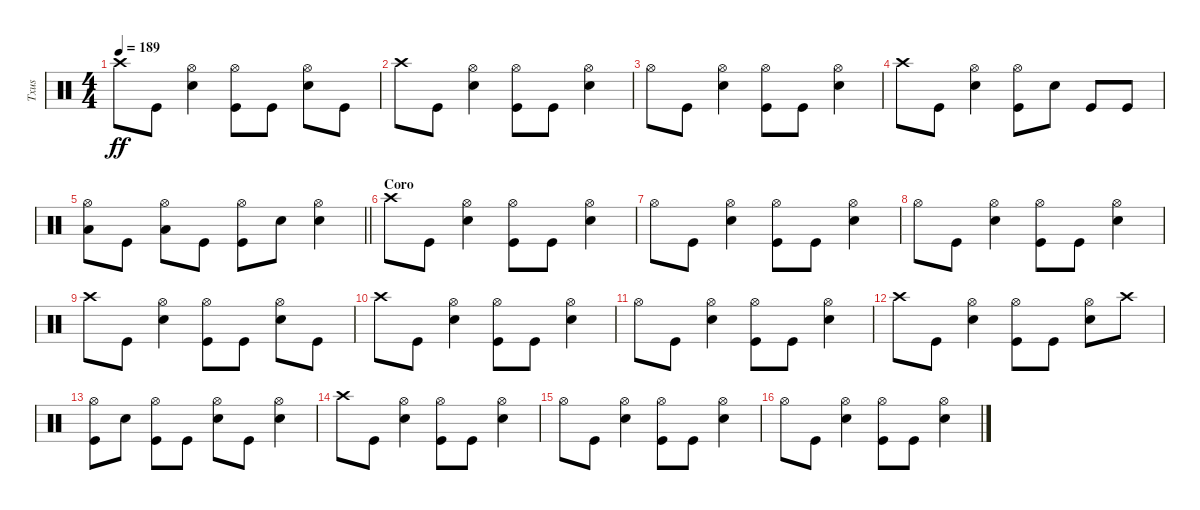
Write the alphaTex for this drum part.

\track ("Txus" "Txus") {instrument percussion}
\staff {score}
\articulation defaults
\ts (4 4)
\tempo 189
\clef neutral
\ks c "Crash high (hit)".8{dy ff} "Kick (hit)".8
("Snare (hit) 2" "Hi-Hat (open)").4 ("Kick (hit)" "Hi-Hat (open)").8 "Kick (hit)".8 ("Snare (hit) 2" "Hi-Hat (open)").8 "Kick (hit)".8 |
"Crash high (hit)".8 "Kick (hit)".8 ("Snare (hit) 2" "Hi-Hat (open)").4 ("Kick (hit)" "Hi-Hat (open)").8 "Kick (hit)".8 ("Snare (hit) 2" "Hi-Hat (open)").4 |
"Hi-Hat (open)".8 "Kick (hit)".8 ("Snare (hit) 2" "Hi-Hat (open)").4 ("Kick (hit)" "Hi-Hat (open)").8 "Kick (hit)".8 ("Snare (hit) 2" "Hi-Hat (open)").4 |
"Crash high (hit)".8 "Kick (hit)".8 ("Snare (hit) 2" "Hi-Hat (open)").4 ("Kick (hit)" "Hi-Hat (open)").8 "Snare (hit) 2".8 "Kick (hit)".8 "Kick (hit)".8 |
\barLineRight lightlight
("Low Tom (hit)" "Hi-Hat (open)").8 "Kick (hit)".8 ("Low Tom (hit)" "Hi-Hat (open)").8 "Kick (hit)".8 ("Kick (hit)" "Hi-Hat (open)").8 "Snare (hit) 2".8 ("Snare (hit) 2" "Hi-Hat (open)").4 |
\section ("" "Coro")
"Crash high (hit)".8 "Kick (hit)".8 ("Snare (hit) 2" "Hi-Hat (open)").4 ("Kick (hit)" "Hi-Hat (open)").8 "Kick (hit)".8 ("Snare (hit) 2" "Hi-Hat (open)").4 |
"Hi-Hat (open)".8 "Kick (hit)".8 ("Snare (hit) 2" "Hi-Hat (open)").4 ("Kick (hit)" "Hi-Hat (open)").8 "Kick (hit)".8 ("Snare (hit) 2" "Hi-Hat (open)").4 |
"Hi-Hat (open)".8 "Kick (hit)".8 ("Snare (hit) 2" "Hi-Hat (open)").4 ("Kick (hit)" "Hi-Hat (open)").8 "Kick (hit)".8 ("Snare (hit) 2" "Hi-Hat (open)").4 |
"Crash high (hit)".8 "Kick (hit)".8 ("Snare (hit) 2" "Hi-Hat (open)").4 ("Kick (hit)" "Hi-Hat (open)").8 "Kick (hit)".8 ("Snare (hit) 2" "Hi-Hat (open)").8 "Kick (hit)".8 |
"Crash high (hit)".8 "Kick (hit)".8 ("Snare (hit) 2" "Hi-Hat (open)").4 ("Kick (hit)" "Hi-Hat (open)").8 "Kick (hit)".8 ("Snare (hit) 2" "Hi-Hat (open)").4 |
"Hi-Hat (open)".8 "Kick (hit)".8 ("Snare (hit) 2" "Hi-Hat (open)").4 ("Kick (hit)" "Hi-Hat (open)").8 "Kick (hit)".8 ("Snare (hit) 2" "Hi-Hat (open)").4 |
"Crash high (hit)".8 "Kick (hit)".8 ("Snare (hit) 2" "Hi-Hat (open)").4 ("Kick (hit)" "Hi-Hat (open)").8 "Kick (hit)".8 ("Snare (hit) 2" "Hi-Hat (open)").8 "Crash high (hit)".8 |
("Kick (hit)" "Hi-Hat (open)").8 "Snare (hit) 2".8 ("Kick (hit)" "Hi-Hat (open)").8 "Kick (hit)".8 ("Snare (hit) 2" "Hi-Hat (open)").8 "Kick (hit)".8 ("Snare (hit) 2" "Hi-Hat (open)").4 |
"Crash high (hit)".8 "Kick (hit)".8 ("Snare (hit) 2" "Hi-Hat (open)").4 ("Kick (hit)" "Hi-Hat (open)").8 "Kick (hit)".8 ("Snare (hit) 2" "Hi-Hat (open)").4 |
"Hi-Hat (open)".8 "Kick (hit)".8 ("Snare (hit) 2" "Hi-Hat (open)").4 ("Kick (hit)" "Hi-Hat (open)").8 "Kick (hit)".8 ("Snare (hit) 2" "Hi-Hat (open)").4 |
"Hi-Hat (open)".8 "Kick (hit)".8 ("Snare (hit) 2" "Hi-Hat (open)").4 ("Kick (hit)" "Hi-Hat (open)").8 "Kick (hit)".8 ("Snare (hit) 2" "Hi-Hat (open)").4
